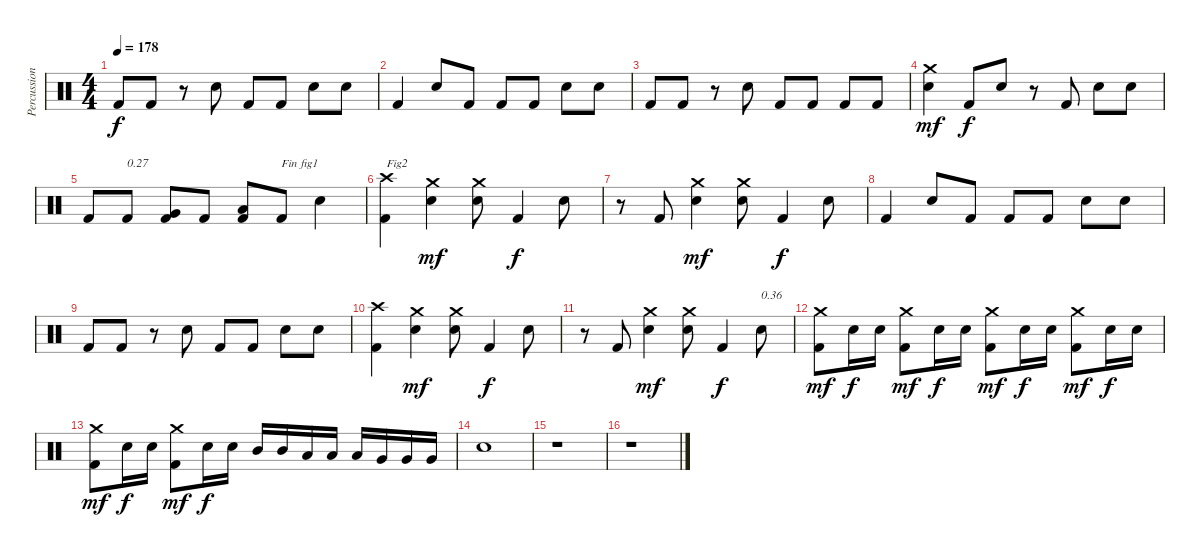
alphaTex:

\track ("Percussions" "Percussion") {instrument percussion}
\staff {score}
\articulation defaults
\ts (4 4)
\tempo 178
\clef neutral
\ks c "Kick (hit) 2".8{dy f} "Kick (hit) 2".8
r.8 "Electric Snare (hit)".8 "Kick (hit) 2".8 "Kick (hit) 2".8 "Electric Snare (hit)".8 "Electric Snare (hit)".8 |
"Kick (hit) 2".4 "Electric Snare (hit)".8 "Kick (hit) 2".8 "Kick (hit) 2".8 "Kick (hit) 2".8 "Electric Snare (hit)".8 "Electric Snare (hit)".8 |
"Kick (hit) 2".8 "Kick (hit) 2".8 r.8 "Electric Snare (hit)".8 "Kick (hit) 2".8 "Kick (hit) 2".8 "Kick (hit) 2".8 "Kick (hit) 2".8 |
("Electric Snare (hit)" "Crash medium (hit)").4{dy mf} "Kick (hit) 2".8{dy f} "Electric Snare (hit)".8 r.8 "Kick (hit) 2".8 "Electric Snare (hit)".8 "Electric Snare (hit)".8 |
"Kick (hit) 2".8 "Kick (hit) 2".8{txt "0.27"} ("Kick (hit) 2" "Very Low Tom (hit)").8 "Kick (hit) 2".8 ("Kick (hit) 2" "Low Floor Tom (hit)").8 "Kick (hit) 2".8{txt "Fin fig1"} "Electric Snare (hit)".4 |
("Kick (hit) 2" "Crash high (hit)").4{txt "Fig2 "} ("Electric Snare (hit)" "Crash medium (hit)").4{dy mf} ("Electric Snare (hit)" "Crash medium (hit)").8 "Kick (hit) 2".4{dy f} "Electric Snare (hit)".8 |
r.8 "Kick (hit) 2".8 ("Electric Snare (hit)" "Crash medium (hit)").4{dy mf} ("Electric Snare (hit)" "Crash medium (hit)").8 "Kick (hit) 2".4{dy f} "Electric Snare (hit)".8 |
"Kick (hit) 2".4 "Electric Snare (hit)".8 "Kick (hit) 2".8 "Kick (hit) 2".8 "Kick (hit) 2".8 "Electric Snare (hit)".8 "Electric Snare (hit)".8 |
"Kick (hit) 2".8 "Kick (hit) 2".8 r.8 "Electric Snare (hit)".8 "Kick (hit) 2".8 "Kick (hit) 2".8 "Electric Snare (hit)".8 "Electric Snare (hit)".8 |
("Kick (hit) 2" "Crash high (hit)").4 ("Electric Snare (hit)" "Crash medium (hit)").4{dy mf} ("Electric Snare (hit)" "Crash medium (hit)").8 "Kick (hit) 2".4{dy f} "Electric Snare (hit)".8 |
r.8 "Kick (hit) 2".8 ("Electric Snare (hit)" "Crash medium (hit)").4{dy mf} ("Electric Snare (hit)" "Crash medium (hit)").8 "Kick (hit) 2".4{dy f} "Electric Snare (hit)".8{txt "0.36"} |
("Kick (hit) 2" "Crash medium (hit)").8{dy mf} "Electric Snare (hit)".16{dy f} "Electric Snare (hit)".16 ("Kick (hit) 2" "Crash medium (hit)").8{dy mf} "Electric Snare (hit)".16{dy f} "Electric Snare (hit)".16 ("Kick (hit) 2" "Crash medium (hit)").8{dy mf} "Electric Snare (hit)".16{dy f} "Electric Snare (hit)".16 ("Kick (hit) 2" "Crash medium (hit)").8{dy mf} "Electric Snare (hit)".16{dy f} "Electric Snare (hit)".16 |
("Kick (hit) 2" "Crash medium (hit)").8{dy mf} "Electric Snare (hit)".16{dy f} "Electric Snare (hit)".16 ("Kick (hit) 2" "Crash medium (hit)").8{dy mf} "Electric Snare (hit)".16{dy f} "Electric Snare (hit)".16 "Mid Tom (hit)".16 "Mid Tom (hit)".16 "Low Tom (hit)".16 "Low Tom (hit)".16 "Low Tom (hit)".16 "Very Low Tom (hit)".16 "Very Low Tom (hit)".16 "Very Low Tom (hit)".16 |
"Electric Snare (hit)".1 |
r.1 |
r.1
